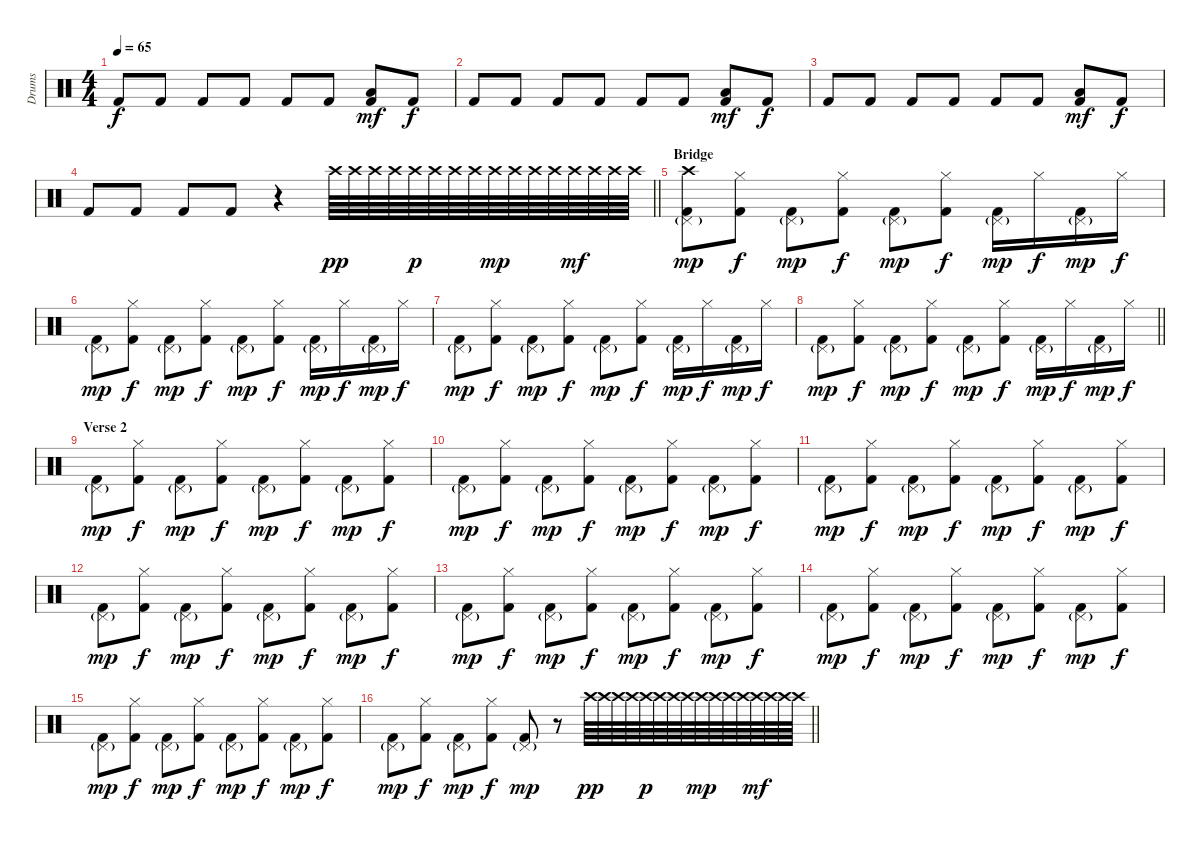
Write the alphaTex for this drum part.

\track ("Drums" "Drums") {instrument percussion}
\staff {score}
\articulation defaults
\ts (4 4)
\tempo 65
\clef neutral
\ks c "Kick (hit) 2".8{dy f} "Kick (hit) 2".8 "Kick (hit) 2".8 "Kick (hit) 2".8 "Kick (hit) 2".8 "Kick (hit) 2".8
("Low Floor Tom (hit)" "Kick (hit) 2").8{dy mf} "Kick (hit) 2".8{dy f} |
"Kick (hit) 2".8 "Kick (hit) 2".8 "Kick (hit) 2".8 "Kick (hit) 2".8 "Kick (hit) 2".8 "Kick (hit) 2".8 ("Low Floor Tom (hit)" "Kick (hit) 2").8{dy mf} "Kick (hit) 2".8{dy f} |
"Kick (hit) 2".8 "Kick (hit) 2".8 "Kick (hit) 2".8 "Kick (hit) 2".8 "Kick (hit) 2".8 "Kick (hit) 2".8 ("Low Floor Tom (hit)" "Kick (hit) 2").8{dy mf} "Kick (hit) 2".8{dy f} |
\barLineRight lightlight "Kick (hit) 2".8 "Kick (hit) 2".8 "Kick (hit) 2".8 "Kick (hit) 2".8
r.4 "Crash high (hit)".64{dy pp} "Crash high (hit)".64 "Crash high (hit)".64 "Crash high (hit)".64 "Crash high (hit)".64{dy p} "Crash high (hit)".64 "Crash high (hit)".64 "Crash high (hit)".64 "Crash high (hit)".64{dy mp} "Crash high (hit)".64 "Crash high (hit)".64 "Crash high (hit)".64 "Crash high (hit)".64{dy mf} "Crash high (hit)".64 "Crash high (hit)".64 "Crash high (hit)".64 |
\section ("" "Bridge")
("Crash high (hit)" "Pedal Hi-Hat (hit)"{g} "Kick (hit) 2").8{dy mp} ("Hi-Hat (closed)" "Kick (hit) 2").8{dy f} ("Pedal Hi-Hat (hit)"{g} "Kick (hit) 2").8{dy mp} ("Hi-Hat (closed)" "Kick (hit) 2").8{dy f} ("Pedal Hi-Hat (hit)"{g} "Kick (hit) 2").8{dy mp} ("Hi-Hat (closed)" "Kick (hit) 2").8{dy f} ("Pedal Hi-Hat (hit)"{g} "Kick (hit) 2").16{dy mp} "Hi-Hat (closed)".16{dy f} ("Pedal Hi-Hat (hit)"{g} "Kick (hit) 2").16{dy mp} "Hi-Hat (closed)".16{dy f} |
("Pedal Hi-Hat (hit)"{g} "Kick (hit) 2").8{dy mp} ("Hi-Hat (closed)" "Kick (hit) 2").8{dy f} ("Pedal Hi-Hat (hit)"{g} "Kick (hit) 2").8{dy mp} ("Hi-Hat (closed)" "Kick (hit) 2").8{dy f} ("Pedal Hi-Hat (hit)"{g} "Kick (hit) 2").8{dy mp} ("Hi-Hat (closed)" "Kick (hit) 2").8{dy f} ("Pedal Hi-Hat (hit)"{g} "Kick (hit) 2").16{dy mp} "Hi-Hat (closed)".16{dy f} ("Pedal Hi-Hat (hit)"{g} "Kick (hit) 2").16{dy mp} "Hi-Hat (closed)".16{dy f} |
("Pedal Hi-Hat (hit)"{g} "Kick (hit) 2").8{dy mp} ("Hi-Hat (closed)" "Kick (hit) 2").8{dy f} ("Pedal Hi-Hat (hit)"{g} "Kick (hit) 2").8{dy mp} ("Hi-Hat (closed)" "Kick (hit) 2").8{dy f} ("Pedal Hi-Hat (hit)"{g} "Kick (hit) 2").8{dy mp} ("Hi-Hat (closed)" "Kick (hit) 2").8{dy f} ("Pedal Hi-Hat (hit)"{g} "Kick (hit) 2").16{dy mp} "Hi-Hat (closed)".16{dy f} ("Pedal Hi-Hat (hit)"{g} "Kick (hit) 2").16{dy mp} "Hi-Hat (closed)".16{dy f} |
\barLineRight lightlight
("Pedal Hi-Hat (hit)"{g} "Kick (hit) 2").8{dy mp} ("Hi-Hat (closed)" "Kick (hit) 2").8{dy f} ("Pedal Hi-Hat (hit)"{g} "Kick (hit) 2").8{dy mp} ("Hi-Hat (closed)" "Kick (hit) 2").8{dy f} ("Pedal Hi-Hat (hit)"{g} "Kick (hit) 2").8{dy mp} ("Hi-Hat (closed)" "Kick (hit) 2").8{dy f} ("Pedal Hi-Hat (hit)"{g} "Kick (hit) 2").16{dy mp} "Hi-Hat (closed)".16{dy f} ("Pedal Hi-Hat (hit)"{g} "Kick (hit) 2").16{dy mp} "Hi-Hat (closed)".16{dy f} |
\section ("" "Verse 2")
("Pedal Hi-Hat (hit)"{g} "Kick (hit) 2").8{dy mp} ("Hi-Hat (closed)" "Kick (hit) 2").8{dy f} ("Pedal Hi-Hat (hit)"{g} "Kick (hit) 2").8{dy mp} ("Hi-Hat (closed)" "Kick (hit) 2").8{dy f} ("Pedal Hi-Hat (hit)"{g} "Kick (hit) 2").8{dy mp} ("Hi-Hat (closed)" "Kick (hit) 2").8{dy f} ("Pedal Hi-Hat (hit)"{g} "Kick (hit) 2").8{dy mp} ("Hi-Hat (closed)" "Kick (hit) 2").8{dy f} |
("Pedal Hi-Hat (hit)"{g} "Kick (hit) 2").8{dy mp} ("Hi-Hat (closed)" "Kick (hit) 2").8{dy f} ("Pedal Hi-Hat (hit)"{g} "Kick (hit) 2").8{dy mp} ("Hi-Hat (closed)" "Kick (hit) 2").8{dy f} ("Pedal Hi-Hat (hit)"{g} "Kick (hit) 2").8{dy mp} ("Hi-Hat (closed)" "Kick (hit) 2").8{dy f} ("Pedal Hi-Hat (hit)"{g} "Kick (hit) 2").8{dy mp} ("Hi-Hat (closed)" "Kick (hit) 2").8{dy f} |
("Pedal Hi-Hat (hit)"{g} "Kick (hit) 2").8{dy mp} ("Hi-Hat (closed)" "Kick (hit) 2").8{dy f} ("Pedal Hi-Hat (hit)"{g} "Kick (hit) 2").8{dy mp} ("Hi-Hat (closed)" "Kick (hit) 2").8{dy f} ("Pedal Hi-Hat (hit)"{g} "Kick (hit) 2").8{dy mp} ("Hi-Hat (closed)" "Kick (hit) 2").8{dy f} ("Pedal Hi-Hat (hit)"{g} "Kick (hit) 2").8{dy mp} ("Hi-Hat (closed)" "Kick (hit) 2").8{dy f} |
("Pedal Hi-Hat (hit)"{g} "Kick (hit) 2").8{dy mp} ("Hi-Hat (closed)" "Kick (hit) 2").8{dy f} ("Pedal Hi-Hat (hit)"{g} "Kick (hit) 2").8{dy mp} ("Hi-Hat (closed)" "Kick (hit) 2").8{dy f} ("Pedal Hi-Hat (hit)"{g} "Kick (hit) 2").8{dy mp} ("Hi-Hat (closed)" "Kick (hit) 2").8{dy f} ("Pedal Hi-Hat (hit)"{g} "Kick (hit) 2").8{dy mp} ("Hi-Hat (closed)" "Kick (hit) 2").8{dy f} |
("Pedal Hi-Hat (hit)"{g} "Kick (hit) 2").8{dy mp} ("Hi-Hat (closed)" "Kick (hit) 2").8{dy f} ("Pedal Hi-Hat (hit)"{g} "Kick (hit) 2").8{dy mp} ("Hi-Hat (closed)" "Kick (hit) 2").8{dy f} ("Pedal Hi-Hat (hit)"{g} "Kick (hit) 2").8{dy mp} ("Hi-Hat (closed)" "Kick (hit) 2").8{dy f} ("Pedal Hi-Hat (hit)"{g} "Kick (hit) 2").8{dy mp} ("Hi-Hat (closed)" "Kick (hit) 2").8{dy f} |
("Pedal Hi-Hat (hit)"{g} "Kick (hit) 2").8{dy mp} ("Hi-Hat (closed)" "Kick (hit) 2").8{dy f} ("Pedal Hi-Hat (hit)"{g} "Kick (hit) 2").8{dy mp} ("Hi-Hat (closed)" "Kick (hit) 2").8{dy f} ("Pedal Hi-Hat (hit)"{g} "Kick (hit) 2").8{dy mp} ("Hi-Hat (closed)" "Kick (hit) 2").8{dy f} ("Pedal Hi-Hat (hit)"{g} "Kick (hit) 2").8{dy mp} ("Hi-Hat (closed)" "Kick (hit) 2").8{dy f} |
("Pedal Hi-Hat (hit)"{g} "Kick (hit) 2").8{dy mp} ("Hi-Hat (closed)" "Kick (hit) 2").8{dy f} ("Pedal Hi-Hat (hit)"{g} "Kick (hit) 2").8{dy mp} ("Hi-Hat (closed)" "Kick (hit) 2").8{dy f} ("Pedal Hi-Hat (hit)"{g} "Kick (hit) 2").8{dy mp} ("Hi-Hat (closed)" "Kick (hit) 2").8{dy f} ("Pedal Hi-Hat (hit)"{g} "Kick (hit) 2").8{dy mp} ("Hi-Hat (closed)" "Kick (hit) 2").8{dy f} |
\barLineRight lightlight
("Pedal Hi-Hat (hit)"{g} "Kick (hit) 2").8{dy mp} ("Hi-Hat (closed)" "Kick (hit) 2").8{dy f} ("Pedal Hi-Hat (hit)"{g} "Kick (hit) 2").8{dy mp} ("Hi-Hat (closed)" "Kick (hit) 2").8{dy f} ("Pedal Hi-Hat (hit)"{g} "Kick (hit) 2").8{dy mp} r.8 "Crash high (hit)".64{dy pp} "Crash high (hit)".64 "Crash high (hit)".64 "Crash high (hit)".64 "Crash high (hit)".64{dy p} "Crash high (hit)".64 "Crash high (hit)".64 "Crash high (hit)".64 "Crash high (hit)".64{dy mp} "Crash high (hit)".64 "Crash high (hit)".64 "Crash high (hit)".64 "Crash high (hit)".64{dy mf} "Crash high (hit)".64 "Crash high (hit)".64 "Crash high (hit)".64
